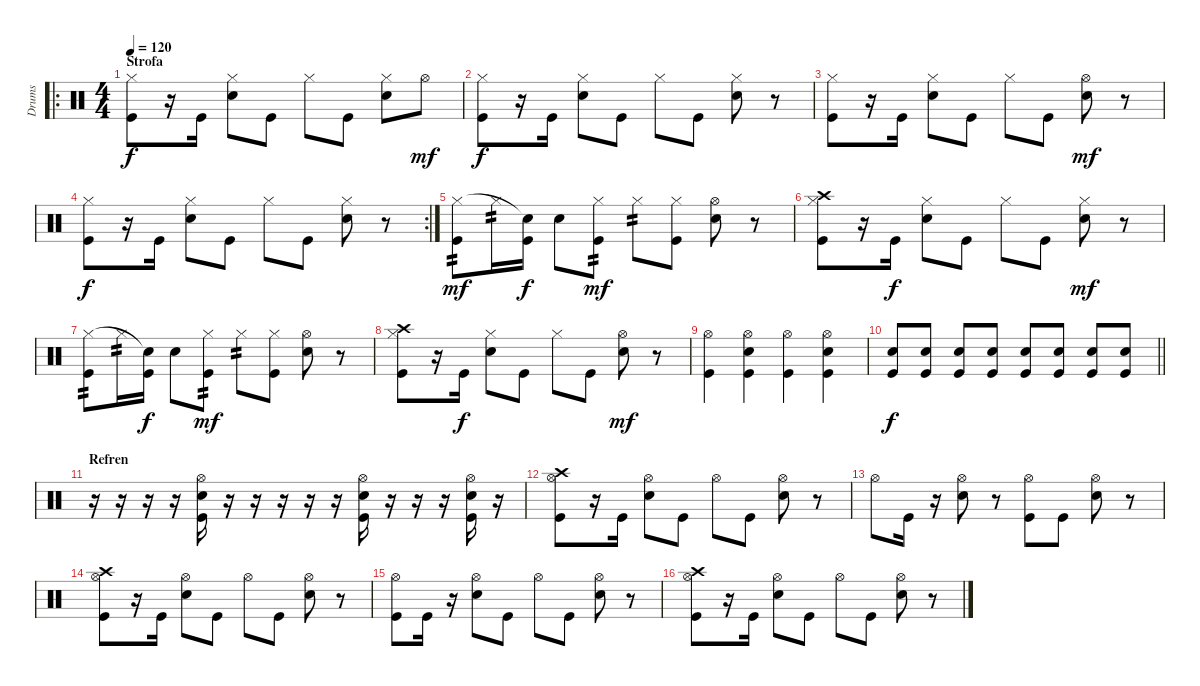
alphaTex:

\track ("Drums" "Drums") {instrument percussion}
\staff {score}
\articulation defaults
\ro
\ts (4 4)
\section ("" "Strofa")
\tempo 120
\clef neutral
\ks c
("Kick (hit)" "Hi-Hat (closed)").8{dy f} r.16 "Kick (hit)".16 ("Snare (hit) 2" "Hi-Hat (closed)").8 "Kick (hit)".8 "Hi-Hat (closed)".8 "Kick (hit)".8 ("Snare (hit) 2" "Hi-Hat (closed)").8 "Hi-Hat (open)".8{dy mf} |
("Kick (hit)" "Hi-Hat (closed)").8{dy f} r.16 "Kick (hit)".16 ("Snare (hit) 2" "Hi-Hat (closed)").8 "Kick (hit)".8 "Hi-Hat (closed)".8 "Kick (hit)".8 ("Snare (hit) 2" "Hi-Hat (closed)").8 r.8 |
("Kick (hit)" "Hi-Hat (closed)").8 r.16 "Kick (hit)".16 ("Snare (hit) 2" "Hi-Hat (closed)").8 "Kick (hit)".8 "Hi-Hat (closed)".8 "Kick (hit)".8 ("Snare (hit) 2" "Hi-Hat (open)").8{dy mf} r.8 |
\rc 2
("Kick (hit)" "Hi-Hat (closed)").8{dy f} r.16 "Kick (hit)".16 ("Snare (hit) 2" "Hi-Hat (closed)").8 "Kick (hit)".8 "Hi-Hat (closed)".8 "Kick (hit)".8 ("Snare (hit) 2" "Hi-Hat (closed)").8 r.8 |
("Kick (hit)" "Hi-Hat (closed)").8{tp 2 dy mf} "Hi-Hat (closed)".16{tp 2} ("Kick (hit)" "Snare (hit)"{t}).16{dy f} "Snare (hit) 2".8 ("Kick (hit)" "Hi-Hat (closed)").8{tp 2 dy mf} "Hi-Hat (closed)".8{tp 2} ("Kick (hit)" "Hi-Hat (closed)").8 ("Snare (hit) 2" "Hi-Hat (open)").8 r.8 |
("Kick (hit)" "Hi-Hat (closed)" "Crash high (hit)").8 r.16 "Kick (hit)".16{dy f} ("Snare (hit) 2" "Hi-Hat (closed)").8 "Kick (hit)".8 "Hi-Hat (closed)".8 "Kick (hit)".8 ("Snare (hit) 2" "Hi-Hat (closed)").8{dy mf} r.8 |
("Kick (hit)" "Hi-Hat (closed)").8{tp 2} "Hi-Hat (closed)".16{tp 2} ("Kick (hit)" "Snare (hit)"{t}).16{dy f} "Snare (hit) 2".8 ("Kick (hit)" "Hi-Hat (closed)").8{tp 2 dy mf} "Hi-Hat (closed)".8{tp 2} ("Kick (hit)" "Hi-Hat (closed)").8 ("Snare (hit) 2" "Hi-Hat (open)").8 r.8 |
("Kick (hit)" "Hi-Hat (closed)" "Crash high (hit)").8 r.16 "Kick (hit)".16{dy f} ("Snare (hit) 2" "Hi-Hat (closed)").8 "Kick (hit)".8 "Hi-Hat (closed)".8 "Kick (hit)".8 ("Snare (hit) 2" "Hi-Hat (open)").8{dy mf} r.8 |
("Kick (hit)" "Hi-Hat (open)").4 ("Kick (hit)" "Snare (hit) 2" "Hi-Hat (open)").4 ("Kick (hit)" "Hi-Hat (open)").4 ("Kick (hit)" "Snare (hit) 2" "Hi-Hat (open)").4 |
\barLineRight lightlight
("Kick (hit)" "Snare (hit) 2").8{dy f} ("Kick (hit)" "Snare (hit) 2").8 ("Kick (hit)" "Snare (hit) 2").8 ("Kick (hit)" "Snare (hit) 2").8 ("Kick (hit)" "Snare (hit) 2").8 ("Kick (hit)" "Snare (hit) 2").8 ("Kick (hit)" "Snare (hit) 2").8 ("Kick (hit)" "Snare (hit) 2").8 |
\section ("" "Refren")
r.16 r.16 r.16 r.16 ("Kick (hit)" "Snare (hit) 2" "Hi-Hat (open)").16 r.16 r.16 r.16 r.16 r.16 ("Kick (hit)" "Snare (hit) 2" "Hi-Hat (open)").16 r.16 r.16 r.16 ("Kick (hit)" "Snare (hit) 2" "Hi-Hat (open)").16 r.16 |
("Kick (hit)" "Hi-Hat (open)" "Crash high (hit)").8 r.16 "Kick (hit)".16 ("Snare (hit) 2" "Hi-Hat (open)").8 "Kick (hit)".8 "Hi-Hat (open)".8 "Kick (hit)".8 ("Snare (hit) 2" "Hi-Hat (open)").8 r.8 |
"Hi-Hat (open)".8 "Kick (hit)".16 r.16 ("Snare (hit) 2" "Hi-Hat (open)").8 r.8 ("Kick (hit)" "Hi-Hat (open)").8 "Kick (hit)".8 ("Snare (hit) 2" "Hi-Hat (open)").8 r.8 |
("Kick (hit)" "Hi-Hat (open)" "Crash high (hit)").8 r.16 "Kick (hit)".16 ("Snare (hit) 2" "Hi-Hat (open)").8 "Kick (hit)".8 "Hi-Hat (open)".8 "Kick (hit)".8 ("Snare (hit) 2" "Hi-Hat (open)").8 r.8 |
("Kick (hit)" "Hi-Hat (open)").8 "Kick (hit)".16 r.16 ("Snare (hit) 2" "Hi-Hat (open)").8 "Kick (hit)".8 "Hi-Hat (open)".8 "Kick (hit)".8 ("Snare (hit) 2" "Hi-Hat (open)").8 r.8 |
("Kick (hit)" "Hi-Hat (open)" "Crash high (hit)").8 r.16 "Kick (hit)".16 ("Snare (hit) 2" "Hi-Hat (open)").8 "Kick (hit)".8 "Hi-Hat (open)".8 "Kick (hit)".8 ("Snare (hit) 2" "Hi-Hat (open)").8 r.8
